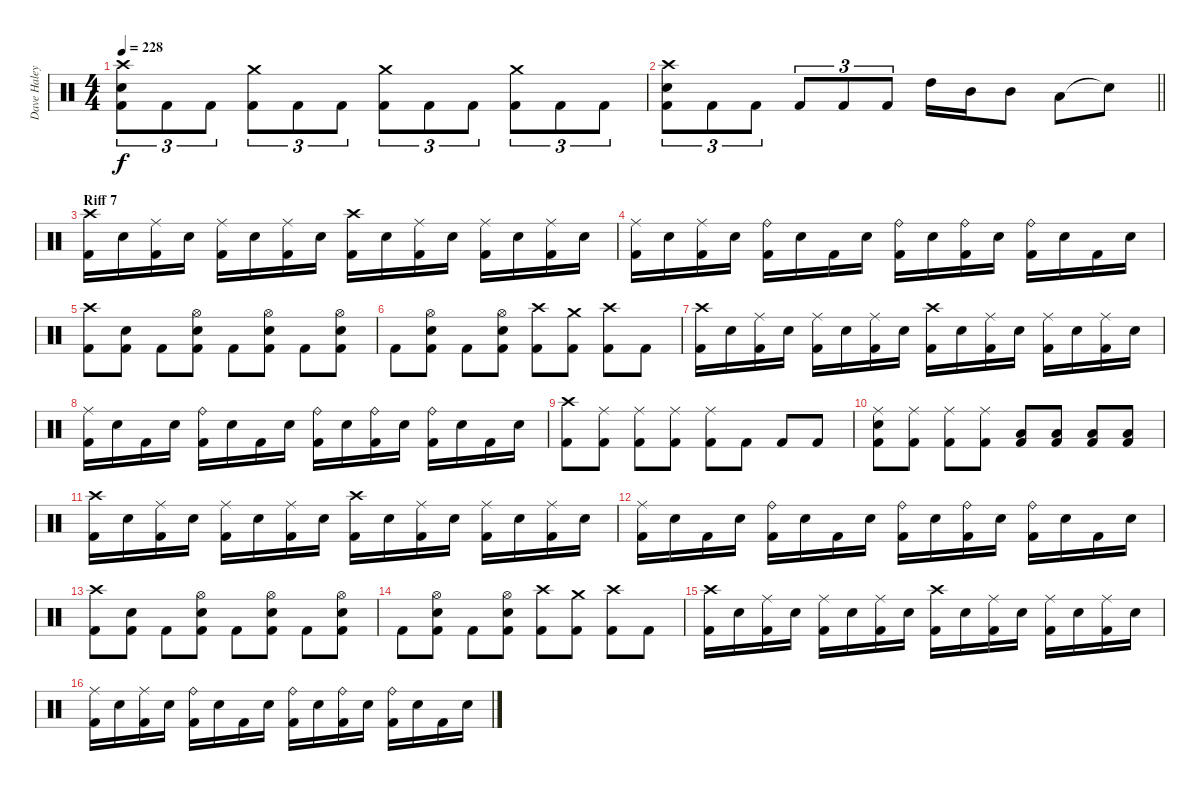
\track ("Dave Haley" "Dave Haley") {instrument percussion}
\staff {score}
\articulation defaults
\ts (4 4)
\tempo 228
\clef neutral
\ks c
("Crash high (hit)" "Snare (hit) 2" "Kick (hit) 2").8{tu (3 2) dy f} "Kick (hit) 2".8{tu (3 2)} "Kick (hit) 2".8{tu (3 2)} ("Crash medium (hit)" "Kick (hit) 2").8{tu (3 2)} "Kick (hit) 2".8{tu (3 2)} "Kick (hit) 2".8{tu (3 2)} ("Crash medium (hit)" "Kick (hit) 2").8{tu (3 2)} "Kick (hit) 2".8{tu (3 2)} "Kick (hit) 2".8{tu (3 2)} ("Crash medium (hit)" "Kick (hit) 2").8{tu (3 2)} "Kick (hit) 2".8{tu (3 2)} "Kick (hit) 2".8{tu (3 2)} |
\barLineRight lightlight
("Crash high (hit)" "Snare (hit) 2" "Kick (hit) 2").8{tu (3 2)} "Kick (hit) 2".8{tu (3 2)} "Kick (hit) 2".8{tu (3 2)} "Kick (hit) 2".8{tu (3 2)} "Kick (hit) 2".8{tu (3 2)} "Kick (hit) 2".8{tu (3 2)} "High Tom (hit)".16 "Mid Tom (hit)".16 "Mid Tom (hit)".8 "Low Tom (hit)".8 "Snare (hit)"{t}.8 |
\section ("" "Riff 7")
("Crash high (hit)" "Kick (hit) 2").16 "Snare (hit) 2".16 ("Ride (middle)" "Kick (hit) 2").16 "Snare (hit) 2".16 ("Ride (middle)" "Kick (hit) 2").16 "Snare (hit) 2".16 ("Ride (middle)" "Kick (hit) 2").16 "Snare (hit) 2".16 ("Crash high (hit)" "Kick (hit) 2").16 "Snare (hit) 2".16 ("Ride (middle)" "Kick (hit) 2").16 "Snare (hit) 2".16 ("Ride (middle)" "Kick (hit) 2").16 "Snare (hit) 2".16 ("Ride (middle)" "Kick (hit) 2").16 "Snare (hit) 2".16 |
("Ride (middle)" "Kick (hit) 2").16 "Snare (hit) 2".16 ("Ride (middle)" "Kick (hit) 2").16 "Snare (hit) 2".16 ("Ride (bell)" "Kick (hit) 2").16 "Snare (hit) 2".16 "Kick (hit) 2".16 "Snare (hit) 2".16 ("Ride (bell)" "Kick (hit) 2").16 "Snare (hit) 2".16 ("Ride (bell)" "Kick (hit) 2").16 "Snare (hit) 2".16 ("Ride (bell)" "Kick (hit) 2").16 "Snare (hit) 2".16 "Kick (hit) 2".16 "Snare (hit) 2".16 |
("Crash high (hit)" "Kick (hit) 2").8 ("Snare (hit) 2" "Kick (hit) 2").8 "Kick (hit) 2".8 ("Hi-Hat (open)" "Snare (hit) 2" "Kick (hit) 2").8 "Kick (hit) 2".8 ("Hi-Hat (open)" "Snare (hit) 2" "Kick (hit) 2").8 "Kick (hit) 2".8 ("Hi-Hat (open)" "Snare (hit) 2" "Kick (hit) 2").8 |
"Kick (hit) 2".8 ("Hi-Hat (open)" "Snare (hit) 2" "Kick (hit) 2").8 "Kick (hit) 2".8 ("Hi-Hat (open)" "Snare (hit) 2" "Kick (hit) 2").8 ("Crash high (hit)" "Kick (hit) 2").8 ("Crash medium (hit)" "Kick (hit) 2").8 ("Crash high (hit)" "Kick (hit) 2").8 "Kick (hit) 2".8 |
("Crash high (hit)" "Kick (hit) 2").16 "Snare (hit) 2".16 ("Ride (middle)" "Kick (hit) 2").16 "Snare (hit) 2".16 ("Ride (middle)" "Kick (hit) 2").16 "Snare (hit) 2".16 ("Ride (middle)" "Kick (hit) 2").16 "Snare (hit) 2".16 ("Crash high (hit)" "Kick (hit) 2").16 "Snare (hit) 2".16 ("Ride (middle)" "Kick (hit) 2").16 "Snare (hit) 2".16 ("Ride (middle)" "Kick (hit) 2").16 "Snare (hit) 2".16 ("Ride (middle)" "Kick (hit) 2").16 "Snare (hit) 2".16 |
("Ride (middle)" "Kick (hit) 2").16 "Snare (hit) 2".16 "Kick (hit) 2".16 "Snare (hit) 2".16 ("Ride (bell)" "Kick (hit) 2").16 "Snare (hit) 2".16 "Kick (hit) 2".16 "Snare (hit) 2".16 ("Ride (bell)" "Kick (hit) 2").16 "Snare (hit) 2".16 ("Ride (bell)" "Kick (hit) 2").16 "Snare (hit) 2".16 ("Ride (bell)" "Kick (hit) 2").16 "Snare (hit) 2".16 "Kick (hit) 2".16 "Snare (hit) 2".16 |
("Crash high (hit)" "Kick (hit) 2").8 ("Ride (middle)" "Kick (hit) 2").8 ("Ride (middle)" "Kick (hit) 2").8 ("Ride (middle)" "Kick (hit) 2").8 ("Ride (middle)" "Kick (hit) 2").8 "Kick (hit) 2".8 "Kick (hit) 2".8 "Kick (hit) 2".8 |
("Ride (middle)" "Snare (hit) 2" "Kick (hit) 2").8 ("Ride (middle)" "Kick (hit) 2").8 ("Ride (middle)" "Kick (hit) 2").8 ("Ride (middle)" "Kick (hit) 2").8 ("Low Tom (hit)" "Kick (hit) 2").8 ("Low Tom (hit)" "Kick (hit) 2").8 ("Low Tom (hit)" "Kick (hit) 2").8 ("Low Tom (hit)" "Kick (hit) 2").8 |
("Crash high (hit)" "Kick (hit) 2").16 "Snare (hit) 2".16 ("Ride (middle)" "Kick (hit) 2").16 "Snare (hit) 2".16 ("Ride (middle)" "Kick (hit) 2").16 "Snare (hit) 2".16 ("Ride (middle)" "Kick (hit) 2").16 "Snare (hit) 2".16 ("Crash high (hit)" "Kick (hit) 2").16 "Snare (hit) 2".16 ("Ride (middle)" "Kick (hit) 2").16 "Snare (hit) 2".16 ("Ride (middle)" "Kick (hit) 2").16 "Snare (hit) 2".16 ("Ride (middle)" "Kick (hit) 2").16 "Snare (hit) 2".16 |
("Ride (middle)" "Kick (hit) 2").16 "Snare (hit) 2".16 "Kick (hit) 2".16 "Snare (hit) 2".16 ("Ride (bell)" "Kick (hit) 2").16 "Snare (hit) 2".16 "Kick (hit) 2".16 "Snare (hit) 2".16 ("Ride (bell)" "Kick (hit) 2").16 "Snare (hit) 2".16 ("Ride (bell)" "Kick (hit) 2").16 "Snare (hit) 2".16 ("Ride (bell)" "Kick (hit) 2").16 "Snare (hit) 2".16 "Kick (hit) 2".16 "Snare (hit) 2".16 |
("Crash high (hit)" "Kick (hit) 2").8 ("Snare (hit) 2" "Kick (hit) 2").8 "Kick (hit) 2".8 ("Hi-Hat (open)" "Snare (hit) 2" "Kick (hit) 2").8 "Kick (hit) 2".8 ("Hi-Hat (open)" "Snare (hit) 2" "Kick (hit) 2").8 "Kick (hit) 2".8 ("Hi-Hat (open)" "Snare (hit) 2" "Kick (hit) 2").8 |
"Kick (hit) 2".8 ("Hi-Hat (open)" "Snare (hit) 2" "Kick (hit) 2").8 "Kick (hit) 2".8 ("Hi-Hat (open)" "Snare (hit) 2" "Kick (hit) 2").8 ("Crash high (hit)" "Kick (hit) 2").8 ("Crash medium (hit)" "Kick (hit) 2").8 ("Crash high (hit)" "Kick (hit) 2").8 "Kick (hit) 2".8 |
("Crash high (hit)" "Kick (hit) 2").16 "Snare (hit) 2".16 ("Ride (middle)" "Kick (hit) 2").16 "Snare (hit) 2".16 ("Ride (middle)" "Kick (hit) 2").16 "Snare (hit) 2".16 ("Ride (middle)" "Kick (hit) 2").16 "Snare (hit) 2".16 ("Crash high (hit)" "Kick (hit) 2").16 "Snare (hit) 2".16 ("Ride (middle)" "Kick (hit) 2").16 "Snare (hit) 2".16 ("Ride (middle)" "Kick (hit) 2").16 "Snare (hit) 2".16 ("Ride (middle)" "Kick (hit) 2").16 "Snare (hit) 2".16 |
("Ride (middle)" "Kick (hit) 2").16 "Snare (hit) 2".16 ("Ride (middle)" "Kick (hit) 2").16 "Snare (hit) 2".16 ("Ride (bell)" "Kick (hit) 2").16 "Snare (hit) 2".16 "Kick (hit) 2".16 "Snare (hit) 2".16 ("Ride (bell)" "Kick (hit) 2").16 "Snare (hit) 2".16 ("Ride (bell)" "Kick (hit) 2").16 "Snare (hit) 2".16 ("Ride (bell)" "Kick (hit) 2").16 "Snare (hit) 2".16 "Kick (hit) 2".16 "Snare (hit) 2".16
